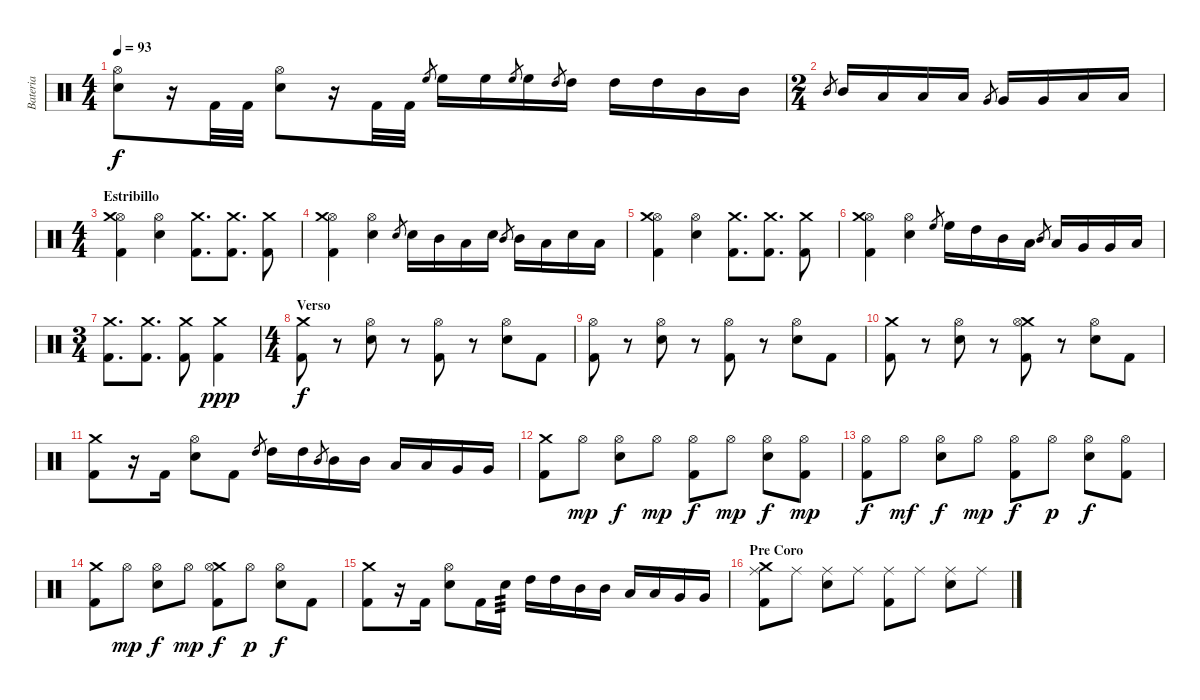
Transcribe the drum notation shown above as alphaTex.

\track ("Bateria" "Bateria") {instrument percussion}
\staff {score}
\articulation defaults
\ts (4 4)
\tempo 93
\clef neutral
\ks c
("Hi-Hat (open)" "Snare (hit) 2").8{dy f} r.16 "Kick (hit) 2".32 "Kick (hit) 2".32 ("Snare (hit) 2" "Hi-Hat (open)").8 r.16 "Kick (hit) 2".32 "Kick (hit) 2".32 "High Floor Tom (hit)".8{gr} "High Floor Tom (hit)".16 "High Floor Tom (hit)".16 "High Floor Tom (hit)".8{gr} "High Floor Tom (hit)".16 "High Tom (hit)".8{gr} "High Tom (hit)".16 "High Tom (hit)".16 "High Tom (hit)".16 "Mid Tom (hit)".16 "Mid Tom (hit)".16 |
\ts (2 4)
"Mid Tom (hit)".8{gr} "Mid Tom (hit)".16 "Low Tom (hit)".16 "Low Tom (hit)".16 "Low Tom (hit)".16 "Very Low Tom (hit)".8{gr} "Very Low Tom (hit)".16 "Very Low Tom (hit)".16 "Low Floor Tom (hit)".16 "Low Floor Tom (hit)".16 |
\ts (4 4)
\section ("" "Estribillo")
("Kick (hit) 2" "Hi-Hat (open)" "Crash medium (hit)").4 ("Hi-Hat (open)" "Snare (hit) 2").4 ("Kick (hit) 2" "Crash medium (hit)").8{d} ("Kick (hit) 2" "Crash medium (hit)").8{d} ("Kick (hit) 2" "Crash medium (hit)").8 |
("Kick (hit) 2" "Hi-Hat (open)" "Crash medium (hit)").4 ("Hi-Hat (open)" "Snare (hit) 2").4 "Snare (hit) 2".8{gr} "Snare (hit) 2".16 "Mid Tom (hit)".16 "Low Tom (hit)".16 "Snare (hit) 2".16 "Mid Tom (hit)".8{gr} "Mid Tom (hit)".16 "Low Tom (hit)".16 "Snare (hit) 2".16 "Low Tom (hit)".16 |
("Kick (hit) 2" "Hi-Hat (open)" "Crash medium (hit)").4 ("Hi-Hat (open)" "Snare (hit) 2").4 ("Kick (hit) 2" "Crash medium (hit)").8{d} ("Kick (hit) 2" "Crash medium (hit)").8{d} ("Kick (hit) 2" "Crash medium (hit)").8 |
("Kick (hit) 2" "Hi-Hat (open)" "Crash medium (hit)").4 ("Hi-Hat (open)" "Snare (hit) 2").4 "High Floor Tom (hit)".8{gr} "High Floor Tom (hit)".16 "High Tom (hit)".16 "Mid Tom (hit)".16 "Low Tom (hit)".16 "Mid Tom (hit)".8{gr} "Low Tom (hit)".16 "Very Low Tom (hit)".16 "Very Low Tom (hit)".16 "Low Floor Tom (hit)".16 |
\ts (3 4)
("Kick (hit) 2" "Crash medium (hit)").8{d} ("Kick (hit) 2" "Crash medium (hit)").8{d} ("Kick (hit) 2" "Crash medium (hit)").8 ("Kick (hit) 2" "Crash medium (hit)").4{dy ppp} |
\ts (4 4)
\section ("" "Verso")
("Crash medium (hit)" "Kick (hit) 2").8{dy f} r.8 ("Snare (hit) 2" "Hi-Hat (open)").8 r.8 ("Kick (hit) 2" "Hi-Hat (open)").8 r.8 ("Snare (hit) 2" "Hi-Hat (open)").8 "Kick (hit) 2".8 |
("Hi-Hat (open)" "Kick (hit) 2").8 r.8 ("Snare (hit) 2" "Hi-Hat (open)").8 r.8 ("Kick (hit) 2" "Hi-Hat (open)").8 r.8 ("Snare (hit) 2" "Hi-Hat (open)").8 "Kick (hit) 2".8 |
("Crash medium (hit)" "Kick (hit) 2").8 r.8 ("Snare (hit) 2" "Hi-Hat (open)").8 r.8 ("Crash medium (hit)" "Kick (hit) 2" "Hi-Hat (open)").8 r.8 ("Snare (hit) 2" "Hi-Hat (open)").8 "Kick (hit) 2".8 |
("Crash medium (hit)" "Kick (hit) 2").8 r.16 "Kick (hit) 2".16 ("Snare (hit) 2" "Hi-Hat (open)").8 "Kick (hit) 2".8 "High Tom (hit)".8{gr} "High Tom (hit)".16 "High Tom (hit)".16 "Mid Tom (hit)".8{gr} "Mid Tom (hit)".16 "Mid Tom (hit)".16 "Low Tom (hit)".16 "Low Tom (hit)".16 "Very Low Tom (hit)".16 "Very Low Tom (hit)".16 |
("Crash medium (hit)" "Kick (hit) 2").8 "Hi-Hat (open)".8{dy mp} ("Snare (hit) 2" "Hi-Hat (open)").8{dy f} "Hi-Hat (open)".8{dy mp} ("Kick (hit) 2" "Hi-Hat (open)").8{dy f} "Hi-Hat (open)".8{dy mp} ("Snare (hit) 2" "Hi-Hat (open)").8{dy f} ("Kick (hit) 2" "Hi-Hat (open)").8{dy mp} |
("Hi-Hat (open)" "Kick (hit) 2").8{dy f} "Hi-Hat (open)".8{dy mf} ("Snare (hit) 2" "Hi-Hat (open)").8{dy f} "Hi-Hat (open)".8{dy mp} ("Kick (hit) 2" "Hi-Hat (open)").8{dy f} "Hi-Hat (open)".8{dy p} ("Snare (hit) 2" "Hi-Hat (open)").8{dy f} ("Kick (hit) 2" "Hi-Hat (open)").8 |
("Crash medium (hit)" "Kick (hit) 2").8 "Hi-Hat (open)".8{dy mp} ("Snare (hit) 2" "Hi-Hat (open)").8{dy f} "Hi-Hat (open)".8{dy mp} ("Crash medium (hit)" "Kick (hit) 2" "Hi-Hat (open)").8{dy f} "Hi-Hat (open)".8{dy p} ("Snare (hit) 2" "Hi-Hat (open)").8{dy f} "Kick (hit) 2".8 |
("Crash medium (hit)" "Kick (hit) 2").8 r.16 "Kick (hit) 2".16 ("Snare (hit) 2" "Hi-Hat (open)").8 "Kick (hit) 2".16 "Snare (hit) 2".16{tp 3} "High Tom (hit)".16 "High Tom (hit)".16 "Mid Tom (hit)".16 "Mid Tom (hit)".16 "Low Tom (hit)".16 "Low Tom (hit)".16 "Very Low Tom (hit)".16 "Very Low Tom (hit)".16 |
\section ("" "Pre Coro")
("Crash medium (hit)" "Kick (hit) 2" "Ride (middle)").8{volume 16} "Ride (middle)".8 ("Ride (middle)" "Snare (hit) 2").8 "Ride (middle)".8 ("Ride (middle)" "Kick (hit) 2").8 "Ride (middle)".8 ("Ride (middle)" "Snare (hit) 2").8 "Ride (middle)".8
